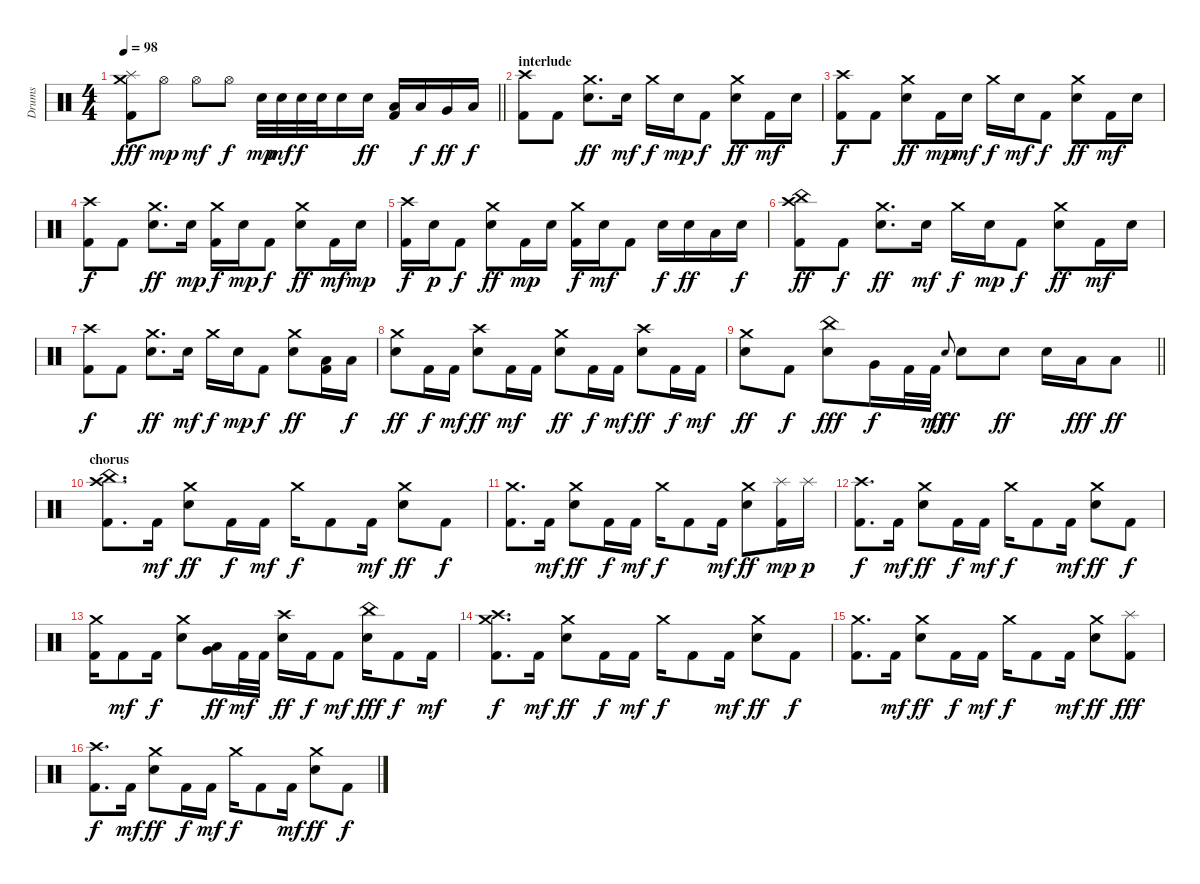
\track ("Drums" "Drums") {instrument percussion}
\staff {score}
\articulation defaults
\ts (4 4)
\tempo 98
\clef neutral
\barLineRight lightlight
\ks c
("Crash medium (hit)" "Splash (hit)" "Kick (hit) 2").8{dy fff} "Hi-Hat (open)".8{dy mp} "Hi-Hat (open)".8{dy mf} "Hi-Hat (open)".8{dy f} "Electric Snare (hit)".32{dy mp} "Electric Snare (hit)".32{dy mf} "Electric Snare (hit)".32{dy f} "Electric Snare (hit)".32 "Electric Snare (hit)".16 "Electric Snare (hit)".16{dy ff} ("Low Tom (hit)" "Kick (hit) 2").16 "Low Tom (hit)".16{dy f} "Very Low Tom (hit)".16{dy ff} "Low Tom (hit)".16{dy f} |
\section ("" "interlude")
("Crash high (hit)" "Kick (hit) 2").8 "Kick (hit) 2".8 ("Crash medium (hit)" "Electric Snare (hit)").8{d dy ff} "Electric Snare (hit)".16{dy mf} "Crash medium (hit)".16{dy f} "Electric Snare (hit)".16{dy mp} "Kick (hit) 2".8{dy f} ("Crash medium (hit)" "Electric Snare (hit)").8{dy ff} "Kick (hit) 2".16{dy mf} "Electric Snare (hit)".16 |
("Crash high (hit)" "Kick (hit) 2").8{dy f} "Kick (hit) 2".8 ("Crash medium (hit)" "Electric Snare (hit)").8{dy ff} "Kick (hit) 2".16{dy mp} "Electric Snare (hit)".16{dy mf} "Crash medium (hit)".16{dy f} "Electric Snare (hit)".16{dy mf} "Kick (hit) 2".8{dy f} ("Crash medium (hit)" "Electric Snare (hit)").8{dy ff} "Kick (hit) 2".16{dy mf} "Electric Snare (hit)".16 |
("Crash high (hit)" "Kick (hit) 2").8{dy f} "Kick (hit) 2".8 ("Crash medium (hit)" "Electric Snare (hit)").8{d dy ff} "Electric Snare (hit)".16{dy mp} ("Crash medium (hit)" "Kick (hit) 2").16{dy f} "Electric Snare (hit)".16{dy mp} "Kick (hit) 2".8{dy f} ("Crash medium (hit)" "Electric Snare (hit)").8{dy ff} "Kick (hit) 2".16{dy mf} "Electric Snare (hit)".16{dy mp} |
("Crash high (hit)" "Kick (hit) 2").16{dy f} "Electric Snare (hit)".16{dy p} "Kick (hit) 2".8{dy f} ("Crash medium (hit)" "Electric Snare (hit)").8{dy ff} "Kick (hit) 2".16{dy mp} "Electric Snare (hit)".16 ("Crash medium (hit)" "Kick (hit) 2").16{dy f} "Electric Snare (hit)".16{dy mf} "Kick (hit) 2".8 "Electric Snare (hit)".16{dy f} "Electric Snare (hit)".16{dy ff} "Low Tom (hit)".16 "Electric Snare (hit)".16{dy f} |
("China (hit)" "Crash high (hit)" "Kick (hit) 2").8{dy ff} "Kick (hit) 2".8{dy f} ("Crash medium (hit)" "Electric Snare (hit)").8{d dy ff} "Electric Snare (hit)".16{dy mf} "Crash medium (hit)".16{dy f} "Electric Snare (hit)".16{dy mp} "Kick (hit) 2".8{dy f} ("Crash medium (hit)" "Electric Snare (hit)").8{dy ff} "Kick (hit) 2".16{dy mf} "Electric Snare (hit)".16 |
("Crash high (hit)" "Kick (hit) 2").8{dy f} "Kick (hit) 2".8 ("Crash medium (hit)" "Electric Snare (hit)").8{d dy ff} "Electric Snare (hit)".16{dy mf} "Crash medium (hit)".16{dy f} "Electric Snare (hit)".16{dy mp} "Kick (hit) 2".8{dy f} ("Crash medium (hit)" "Electric Snare (hit)").8{dy ff} ("Low Tom (hit)" "Kick (hit) 2").16 "Low Tom (hit)".16{dy f} |
("Crash medium (hit)" "Electric Snare (hit)").8{dy ff} "Kick (hit) 2".16{dy f} "Kick (hit) 2".16{dy mf} ("Crash high (hit)" "Electric Snare (hit)").8{dy ff} "Kick (hit) 2".16{dy mf} "Kick (hit) 2".16 ("Crash medium (hit)" "Electric Snare (hit)").8{dy ff} "Kick (hit) 2".16{dy f} "Kick (hit) 2".16{dy mf} ("Crash high (hit)" "Electric Snare (hit)").8{dy ff} "Kick (hit) 2".16{dy f} "Kick (hit) 2".16{dy mf} |
\barLineRight lightlight
("Crash medium (hit)" "Electric Snare (hit)").8{dy ff} "Kick (hit) 2".8{dy f} ("China (hit)" "Electric Snare (hit)").8{dy fff} "Very Low Tom (hit)".16{dy f} "Kick (hit) 2".32 "Kick (hit) 2".32{dy mf} "Electric Snare (hit)"{x}.8{gr onbeat dy fff} "Electric Snare (hit)".8 "Electric Snare (hit)".8{dy ff} "Electric Snare (hit)".16 "Low Tom (hit)".16{dy fff} "Low Tom (hit)".8{dy ff} |
\section ("" "chorus")
("China (hit)" "Crash high (hit)" "Kick (hit) 2").8{d} "Kick (hit) 2".16{dy mf} ("Crash medium (hit)" "Electric Snare (hit)").8{dy ff} "Kick (hit) 2".16{dy f} "Kick (hit) 2".16{dy mf} "Crash medium (hit)".16{dy f} "Kick (hit) 2".8 "Kick (hit) 2".16{dy mf} ("Crash medium (hit)" "Electric Snare (hit)").8{dy ff} "Kick (hit) 2".8{dy f} |
("Crash medium (hit)" "Kick (hit) 2").8{d} "Kick (hit) 2".16{dy mf} ("Crash medium (hit)" "Electric Snare (hit)").8{dy ff} "Kick (hit) 2".16{dy f} "Kick (hit) 2".16{dy mf} "Crash medium (hit)".16{dy f} "Kick (hit) 2".8 "Kick (hit) 2".16{dy mf} ("Crash medium (hit)" "Electric Snare (hit)").8{dy ff} ("Splash (hit)" "Kick (hit) 2").16{dy mp} "Splash (hit)".16{dy p} |
("Crash high (hit)" "Kick (hit) 2").8{d dy f} "Kick (hit) 2".16{dy mf} ("Crash medium (hit)" "Electric Snare (hit)").8{dy ff} "Kick (hit) 2".16{dy f} "Kick (hit) 2".16{dy mf} "Crash medium (hit)".16{dy f} "Kick (hit) 2".8 "Kick (hit) 2".16{dy mf} ("Crash medium (hit)" "Electric Snare (hit)").8{dy ff} "Kick (hit) 2".8{dy f} |
("Crash medium (hit)" "Kick (hit) 2").16 "Kick (hit) 2".8{dy mf} "Kick (hit) 2".16{dy f} ("Crash medium (hit)" "Electric Snare (hit)").8 ("Very Low Tom (hit)" "Low Tom (hit)").16{dy ff} "Kick (hit) 2".32{dy mf} "Kick (hit) 2".32 ("Crash high (hit)" "Electric Snare (hit)").16{dy ff} "Kick (hit) 2".16{dy f} "Kick (hit) 2".8{dy mf} ("China (hit)" "Electric Snare (hit)").16{dy fff} "Kick (hit) 2".8{dy f} "Kick (hit) 2".16{dy mf} |
("Crash medium (hit)" "Crash high (hit)" "Kick (hit) 2").8{d dy f} "Kick (hit) 2".16{dy mf} ("Crash medium (hit)" "Electric Snare (hit)").8{dy ff} "Kick (hit) 2".16{dy f} "Kick (hit) 2".16{dy mf} "Crash medium (hit)".16{dy f} "Kick (hit) 2".8 "Kick (hit) 2".16{dy mf} ("Crash medium (hit)" "Electric Snare (hit)").8{dy ff} "Kick (hit) 2".8{dy f} |
("Crash medium (hit)" "Kick (hit) 2").8{d} "Kick (hit) 2".16{dy mf} ("Crash medium (hit)" "Electric Snare (hit)").8{dy ff} "Kick (hit) 2".16{dy f} "Kick (hit) 2".16{dy mf} "Crash medium (hit)".16{dy f} "Kick (hit) 2".8 "Kick (hit) 2".16{dy mf} ("Crash medium (hit)" "Electric Snare (hit)").8{dy ff} ("Splash (hit)" "Kick (hit) 2").8{dy fff} |
("Crash high (hit)" "Kick (hit) 2").8{d dy f} "Kick (hit) 2".16{dy mf} ("Crash medium (hit)" "Electric Snare (hit)").8{dy ff} "Kick (hit) 2".16{dy f} "Kick (hit) 2".16{dy mf} "Crash medium (hit)".16{dy f} "Kick (hit) 2".8 "Kick (hit) 2".16{dy mf} ("Crash medium (hit)" "Electric Snare (hit)").8{dy ff} "Kick (hit) 2".8{dy f}
